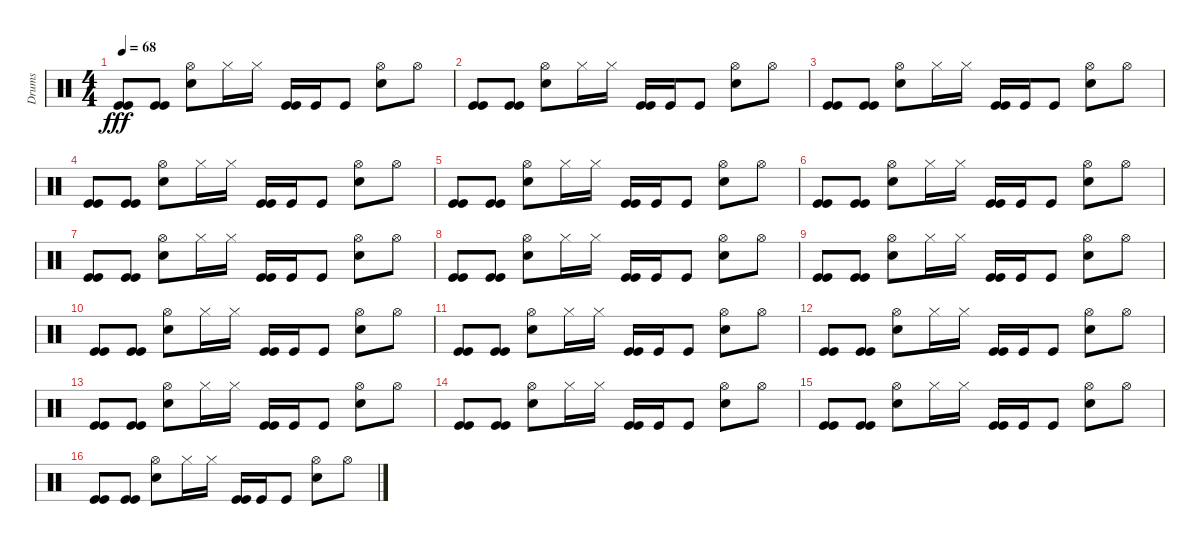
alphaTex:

\track ("Drums" "Drums") {instrument percussion}
\staff {score}
\articulation defaults
\ts (4 4)
\tempo 68
\clef neutral
\ks c
("Kick (hit)" "Kick (hit)").8{dy fff} ("Kick (hit)" "Kick (hit)").8 ("Snare (hit) 2" "Hi-Hat (open)").8 "Hi-Hat (closed)".16 "Hi-Hat (closed)".16 ("Kick (hit)" "Kick (hit)").16 "Kick (hit)".16 "Kick (hit)".8 ("Snare (hit) 2" "Hi-Hat (open)").8 "Hi-Hat (open)".8 |
("Kick (hit)" "Kick (hit)").8 ("Kick (hit)" "Kick (hit)").8 ("Snare (hit) 2" "Hi-Hat (open)").8 "Hi-Hat (closed)".16 "Hi-Hat (closed)".16 ("Kick (hit)" "Kick (hit)").16 "Kick (hit)".16 "Kick (hit)".8 ("Snare (hit) 2" "Hi-Hat (open)").8 "Hi-Hat (open)".8 |
("Kick (hit)" "Kick (hit)").8 ("Kick (hit)" "Kick (hit)").8 ("Snare (hit) 2" "Hi-Hat (open)").8 "Hi-Hat (closed)".16 "Hi-Hat (closed)".16 ("Kick (hit)" "Kick (hit)").16 "Kick (hit)".16 "Kick (hit)".8 ("Snare (hit) 2" "Hi-Hat (open)").8 "Hi-Hat (open)".8 |
("Kick (hit)" "Kick (hit)").8 ("Kick (hit)" "Kick (hit)").8 ("Snare (hit) 2" "Hi-Hat (open)").8 "Hi-Hat (closed)".16 "Hi-Hat (closed)".16 ("Kick (hit)" "Kick (hit)").16 "Kick (hit)".16 "Kick (hit)".8 ("Snare (hit) 2" "Hi-Hat (open)").8 "Hi-Hat (open)".8 |
("Kick (hit)" "Kick (hit)").8 ("Kick (hit)" "Kick (hit)").8 ("Snare (hit) 2" "Hi-Hat (open)").8 "Hi-Hat (closed)".16 "Hi-Hat (closed)".16 ("Kick (hit)" "Kick (hit)").16 "Kick (hit)".16 "Kick (hit)".8 ("Snare (hit) 2" "Hi-Hat (open)").8 "Hi-Hat (open)".8 |
("Kick (hit)" "Kick (hit)").8 ("Kick (hit)" "Kick (hit)").8 ("Snare (hit) 2" "Hi-Hat (open)").8 "Hi-Hat (closed)".16 "Hi-Hat (closed)".16 ("Kick (hit)" "Kick (hit)").16 "Kick (hit)".16 "Kick (hit)".8 ("Snare (hit) 2" "Hi-Hat (open)").8 "Hi-Hat (open)".8 |
("Kick (hit)" "Kick (hit)").8 ("Kick (hit)" "Kick (hit)").8 ("Snare (hit) 2" "Hi-Hat (open)").8 "Hi-Hat (closed)".16 "Hi-Hat (closed)".16 ("Kick (hit)" "Kick (hit)").16 "Kick (hit)".16 "Kick (hit)".8 ("Snare (hit) 2" "Hi-Hat (open)").8 "Hi-Hat (open)".8 |
("Kick (hit)" "Kick (hit)").8 ("Kick (hit)" "Kick (hit)").8 ("Snare (hit) 2" "Hi-Hat (open)").8 "Hi-Hat (closed)".16 "Hi-Hat (closed)".16 ("Kick (hit)" "Kick (hit)").16 "Kick (hit)".16 "Kick (hit)".8 ("Snare (hit) 2" "Hi-Hat (open)").8 "Hi-Hat (open)".8 |
("Kick (hit)" "Kick (hit)").8 ("Kick (hit)" "Kick (hit)").8 ("Snare (hit) 2" "Hi-Hat (open)").8 "Hi-Hat (closed)".16 "Hi-Hat (closed)".16 ("Kick (hit)" "Kick (hit)").16 "Kick (hit)".16 "Kick (hit)".8 ("Snare (hit) 2" "Hi-Hat (open)").8 "Hi-Hat (open)".8 |
("Kick (hit)" "Kick (hit)").8 ("Kick (hit)" "Kick (hit)").8 ("Snare (hit) 2" "Hi-Hat (open)").8 "Hi-Hat (closed)".16 "Hi-Hat (closed)".16 ("Kick (hit)" "Kick (hit)").16 "Kick (hit)".16 "Kick (hit)".8 ("Snare (hit) 2" "Hi-Hat (open)").8 "Hi-Hat (open)".8 |
("Kick (hit)" "Kick (hit)").8 ("Kick (hit)" "Kick (hit)").8 ("Snare (hit) 2" "Hi-Hat (open)").8 "Hi-Hat (closed)".16 "Hi-Hat (closed)".16 ("Kick (hit)" "Kick (hit)").16 "Kick (hit)".16 "Kick (hit)".8 ("Snare (hit) 2" "Hi-Hat (open)").8 "Hi-Hat (open)".8 |
("Kick (hit)" "Kick (hit)").8 ("Kick (hit)" "Kick (hit)").8 ("Snare (hit) 2" "Hi-Hat (open)").8 "Hi-Hat (closed)".16 "Hi-Hat (closed)".16 ("Kick (hit)" "Kick (hit)").16 "Kick (hit)".16 "Kick (hit)".8 ("Snare (hit) 2" "Hi-Hat (open)").8 "Hi-Hat (open)".8 |
("Kick (hit)" "Kick (hit)").8 ("Kick (hit)" "Kick (hit)").8 ("Snare (hit) 2" "Hi-Hat (open)").8 "Hi-Hat (closed)".16 "Hi-Hat (closed)".16 ("Kick (hit)" "Kick (hit)").16 "Kick (hit)".16 "Kick (hit)".8 ("Snare (hit) 2" "Hi-Hat (open)").8 "Hi-Hat (open)".8 |
("Kick (hit)" "Kick (hit)").8 ("Kick (hit)" "Kick (hit)").8 ("Snare (hit) 2" "Hi-Hat (open)").8 "Hi-Hat (closed)".16 "Hi-Hat (closed)".16 ("Kick (hit)" "Kick (hit)").16 "Kick (hit)".16 "Kick (hit)".8 ("Snare (hit) 2" "Hi-Hat (open)").8 "Hi-Hat (open)".8 |
("Kick (hit)" "Kick (hit)").8 ("Kick (hit)" "Kick (hit)").8 ("Snare (hit) 2" "Hi-Hat (open)").8 "Hi-Hat (closed)".16 "Hi-Hat (closed)".16 ("Kick (hit)" "Kick (hit)").16 "Kick (hit)".16 "Kick (hit)".8 ("Snare (hit) 2" "Hi-Hat (open)").8 "Hi-Hat (open)".8 |
("Kick (hit)" "Kick (hit)").8 ("Kick (hit)" "Kick (hit)").8 ("Snare (hit) 2" "Hi-Hat (open)").8 "Hi-Hat (closed)".16 "Hi-Hat (closed)".16 ("Kick (hit)" "Kick (hit)").16 "Kick (hit)".16 "Kick (hit)".8 ("Snare (hit) 2" "Hi-Hat (open)").8 "Hi-Hat (open)".8
